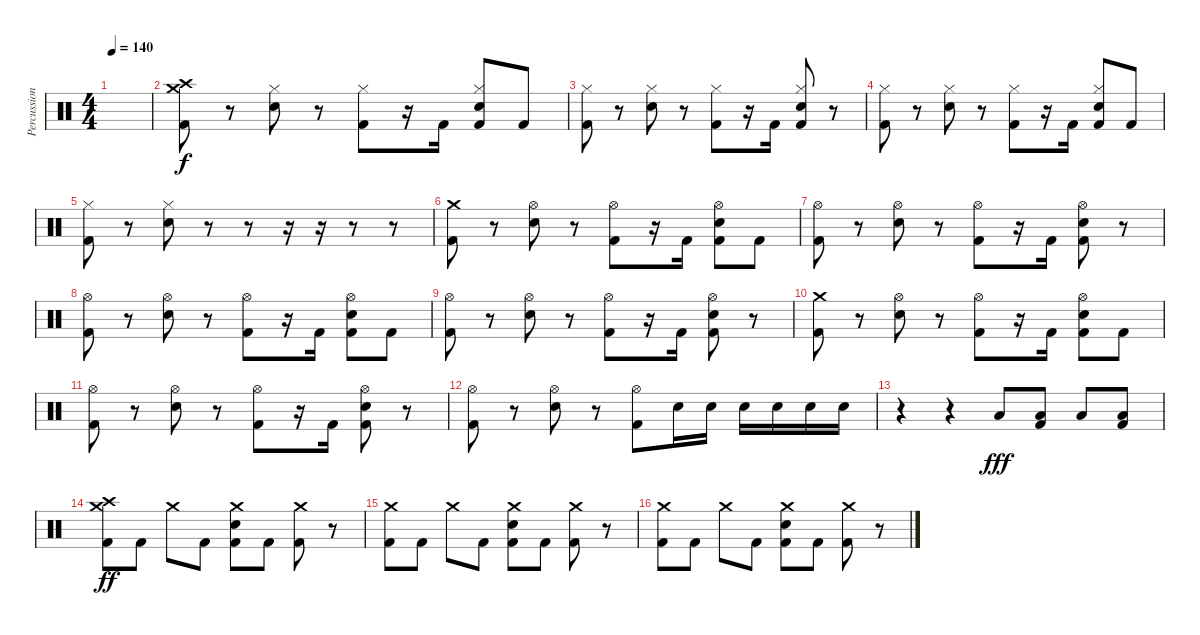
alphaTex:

\track ("Percussion" "Percussion") {instrument percussion}
\staff {score}
\articulation defaults
\ts (4 4)
\tempo 140
\clef neutral
\ks c
|
("Crash medium (hit)" "Crash high (hit)" "Kick (hit) 2").8 r.8 ("Hi-Hat (closed)" "Electric Snare (hit)").8 r.8 ("Hi-Hat (closed)" "Kick (hit) 2").8 r.16 "Kick (hit) 2".16 ("Hi-Hat (closed)" "Electric Snare (hit)" "Kick (hit) 2").8 "Kick (hit) 2".8 |
("Hi-Hat (closed)" "Kick (hit) 2").8 r.8 ("Hi-Hat (closed)" "Electric Snare (hit)").8 r.8 ("Hi-Hat (closed)" "Kick (hit) 2").8 r.16 "Kick (hit) 2".16 ("Hi-Hat (closed)" "Electric Snare (hit)" "Kick (hit) 2").8 r.8 |
("Hi-Hat (closed)" "Kick (hit) 2").8 r.8 ("Hi-Hat (closed)" "Electric Snare (hit)").8 r.8 ("Hi-Hat (closed)" "Kick (hit) 2").8 r.16 "Kick (hit) 2".16 ("Hi-Hat (closed)" "Electric Snare (hit)" "Kick (hit) 2").8 "Kick (hit) 2".8 |
("Hi-Hat (closed)" "Kick (hit) 2").8 r.8 ("Hi-Hat (closed)" "Electric Snare (hit)").8 r.8 r.8 r.16 r.16 r.8 r.8 |
("Crash medium (hit)" "Kick (hit) 2").8 r.8 ("Hi-Hat (open)" "Electric Snare (hit)").8 r.8 ("Hi-Hat (open)" "Kick (hit) 2").8 r.16 "Kick (hit) 2".16 ("Hi-Hat (open)" "Electric Snare (hit)" "Kick (hit) 2").8 "Kick (hit) 2".8 |
("Hi-Hat (open)" "Kick (hit) 2").8 r.8 ("Hi-Hat (open)" "Electric Snare (hit)").8 r.8 ("Hi-Hat (open)" "Kick (hit) 2").8 r.16 "Kick (hit) 2".16 ("Hi-Hat (open)" "Electric Snare (hit)" "Kick (hit) 2").8 r.8 |
("Hi-Hat (open)" "Kick (hit) 2").8 r.8 ("Hi-Hat (open)" "Electric Snare (hit)").8 r.8 ("Hi-Hat (open)" "Kick (hit) 2").8 r.16 "Kick (hit) 2".16 ("Hi-Hat (open)" "Electric Snare (hit)" "Kick (hit) 2").8 "Kick (hit) 2".8 |
("Hi-Hat (open)" "Kick (hit) 2").8 r.8 ("Hi-Hat (open)" "Electric Snare (hit)").8 r.8 ("Hi-Hat (open)" "Kick (hit) 2").8 r.16 "Kick (hit) 2".16 ("Hi-Hat (open)" "Electric Snare (hit)" "Kick (hit) 2").8 r.8 |
("Crash medium (hit)" "Kick (hit) 2").8 r.8 ("Hi-Hat (open)" "Electric Snare (hit)").8 r.8 ("Hi-Hat (open)" "Kick (hit) 2").8 r.16 "Kick (hit) 2".16 ("Hi-Hat (open)" "Electric Snare (hit)" "Kick (hit) 2").8 "Kick (hit) 2".8 |
("Hi-Hat (open)" "Kick (hit) 2").8 r.8 ("Hi-Hat (open)" "Electric Snare (hit)").8 r.8 ("Hi-Hat (open)" "Kick (hit) 2").8 r.16 "Kick (hit) 2".16 ("Hi-Hat (open)" "Electric Snare (hit)" "Kick (hit) 2").8 r.8 |
("Hi-Hat (open)" "Kick (hit) 2").8 r.8 ("Hi-Hat (open)" "Electric Snare (hit)").8 r.8 ("Hi-Hat (open)" "Kick (hit) 2").8 "Electric Snare (hit)".16 "Electric Snare (hit)".16 "Electric Snare (hit)".16 "Electric Snare (hit)".16 "Electric Snare (hit)".16 "Electric Snare (hit)".16 |
r.4 r.4 "Low Floor Tom (hit)".8{dy fff} ("Low Floor Tom (hit)" "Kick (hit) 2").8 "Low Floor Tom (hit)".8 ("Low Floor Tom (hit)" "Kick (hit) 2").8 |
("Crash medium (hit)" "Crash high (hit)" "Kick (hit) 2").8{dy ff} "Kick (hit) 2".8 "Crash medium (hit)".8 "Kick (hit) 2".8 ("Crash medium (hit)" "Electric Snare (hit)" "Kick (hit) 2").8 "Kick (hit) 2".8 ("Crash medium (hit)" "Kick (hit) 2").8 r.8 |
("Crash medium (hit)" "Kick (hit) 2").8 "Kick (hit) 2".8 "Crash medium (hit)".8 "Kick (hit) 2".8 ("Crash medium (hit)" "Electric Snare (hit)" "Kick (hit) 2").8 "Kick (hit) 2".8 ("Crash medium (hit)" "Kick (hit) 2").8 r.8 |
("Crash medium (hit)" "Kick (hit) 2").8 "Kick (hit) 2".8 "Crash medium (hit)".8 "Kick (hit) 2".8 ("Crash medium (hit)" "Electric Snare (hit)" "Kick (hit) 2").8 "Kick (hit) 2".8 ("Crash medium (hit)" "Kick (hit) 2").8 r.8
